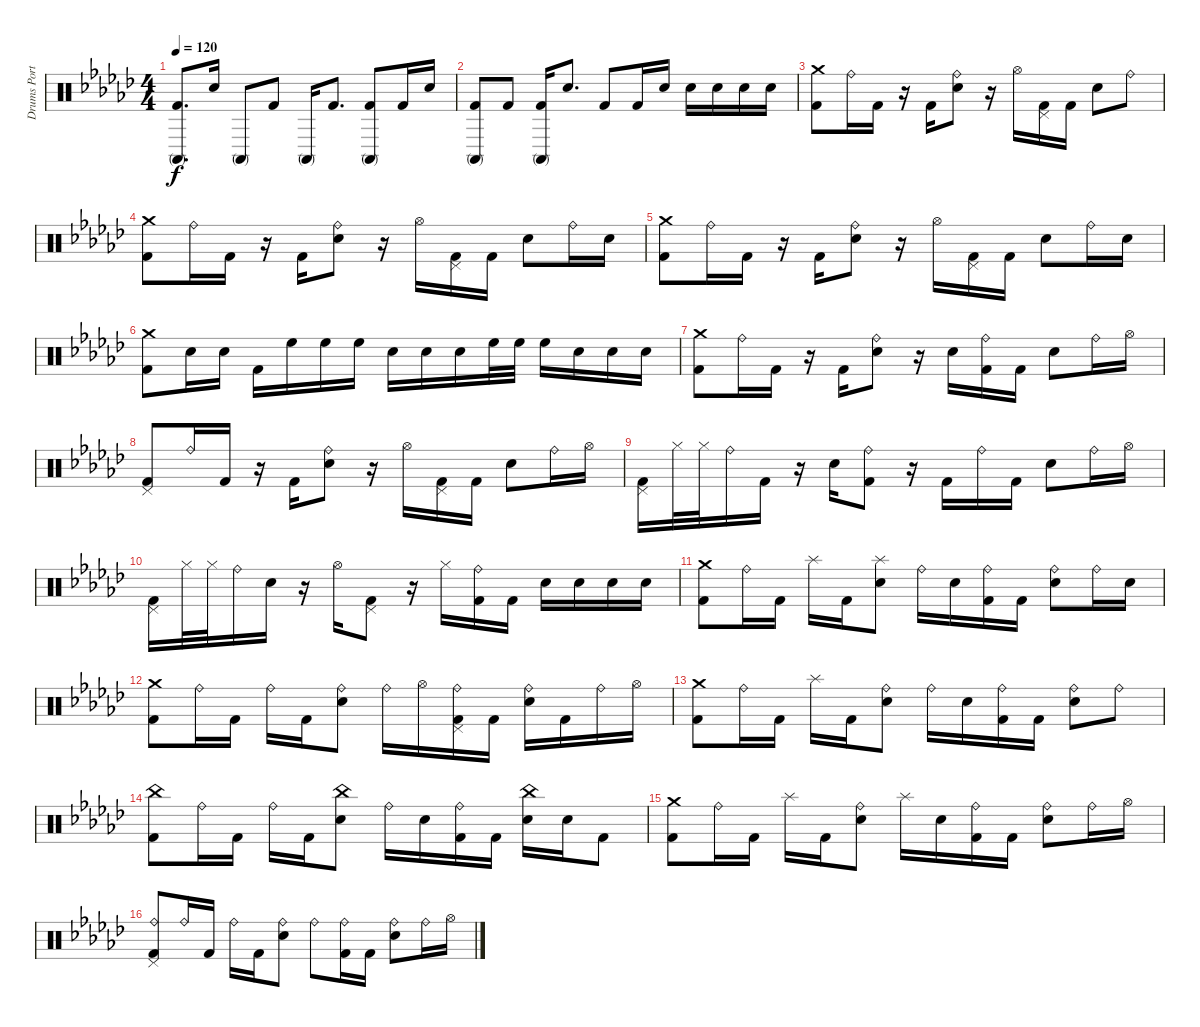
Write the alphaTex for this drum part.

\track ("Drums Portnoy" "Drums Port") {instrument percussion}
\staff {score}
\articulation defaults
\ts (4 4)
\tempo 120
\clef neutral
\ks gb
("Conga high (mute)" "Kick (hit) 2").8{d dy f} "Snare (hit) 2".16 "Conga high (mute)".8 "Kick (hit) 2".8 "Conga high (mute)".16 "Kick (hit) 2".8{d} ("Conga high (mute)" "Kick (hit) 2").8 "Kick (hit) 2".16 "Snare (hit) 2".16 |
("Conga high (mute)" "Kick (hit) 2").8 "Kick (hit) 2".8 ("Conga high (mute)" "Kick (hit) 2").16 "Snare (hit) 2".8{d} "Kick (hit) 2".8 "Kick (hit) 2".16 "Snare (hit) 2".16 "Snare (hit) 2".16 "Snare (hit) 2".16 "Snare (hit) 2".16 "Snare (hit) 2".16 |
("Crash medium (hit)" "Kick (hit) 2").8 "Ride (bell)".16 "Kick (hit) 2".16 r.16 "Kick (hit) 2".16 ("Ride (bell)" "Snare (hit) 2").8 r.16 "Hi-Hat (open)".16 ("Pedal Hi-Hat (hit)" "Kick (hit) 2").16 "Kick (hit) 2".16 "Snare (hit) 2".8 "Ride (bell)".8 |
("Crash medium (hit)" "Kick (hit) 2").8 "Ride (bell)".16 "Kick (hit) 2".16 r.16 "Kick (hit) 2".16 ("Ride (bell)" "Snare (hit) 2").8 r.16 "Hi-Hat (open)".16 ("Pedal Hi-Hat (hit)" "Kick (hit) 2").16 "Kick (hit) 2".16 "Snare (hit) 2".8 "Ride (bell)".16 "Snare (hit) 2".16 |
("Crash medium (hit)" "Kick (hit) 2").8 "Ride (bell)".16 "Kick (hit) 2".16 r.16 "Kick (hit) 2".16 ("Ride (bell)" "Snare (hit) 2").8 r.16 "Hi-Hat (open)".16 ("Pedal Hi-Hat (hit)" "Kick (hit) 2").16 "Kick (hit) 2".16 "Snare (hit) 2".8 "Ride (bell)".16 "Snare (hit) 2".16 |
("Crash medium (hit)" "Kick (hit) 2").8 "Snare (hit) 2".16 "Snare (hit) 2".16 "Kick (hit) 2".16 "High Floor Tom (hit)".16 "High Floor Tom (hit)".16 "High Floor Tom (hit)".16 "Snare (hit) 2".16 "Snare (hit) 2".16 "Snare (hit) 2".16 "High Floor Tom (hit)".32 "High Floor Tom (hit)".32 "High Floor Tom (hit)".16 "Snare (hit) 2".16 "Snare (hit) 2".16 "Snare (hit) 2".16 |
("Crash medium (hit)" "Kick (hit) 2").8 "Ride (bell)".16 "Kick (hit) 2".16 r.16 "Kick (hit) 2".16 ("Ride (bell)" "Snare (hit) 2").8 r.16 "Snare (hit) 2".16 ("Ride (bell)" "Kick (hit) 2").16 "Kick (hit) 2".16 "Snare (hit) 2".8 "Ride (bell)".16 "Hi-Hat (open)".16 |
("Pedal Hi-Hat (hit)" "Kick (hit) 2").8 "Ride (bell)".16 "Kick (hit) 2".16 r.16 "Kick (hit) 2".16 ("Ride (bell)" "Snare (hit) 2").8 r.16 "Hi-Hat (open)".16 ("Pedal Hi-Hat (hit)" "Kick (hit) 2").16 "Kick (hit) 2".16 "Snare (hit) 2".8 "Ride (bell)".16 "Hi-Hat (open)".16 |
("Pedal Hi-Hat (hit)" "Kick (hit) 2").16 "Hi-Hat (closed)".32 "Hi-Hat (closed)".32 "Ride (bell)".16 "Kick (hit) 2".16 r.16 "Snare (hit) 2".16 ("Ride (bell)" "Kick (hit) 2").8 r.16 "Kick (hit) 2".16 "Ride (bell)".16 "Kick (hit) 2".16 "Snare (hit) 2".8 "Ride (bell)".16 "Hi-Hat (open)".16 |
("Pedal Hi-Hat (hit)" "Kick (hit) 2").16 "Hi-Hat (closed)".32 "Hi-Hat (closed)".32 "Ride (bell)".16 "Snare (hit) 2".16 r.16 "Hi-Hat (open)".16 ("Pedal Hi-Hat (hit)" "Kick (hit) 2").8 r.16 "Hi-Hat (closed)".16 ("Ride (bell)" "Kick (hit) 2").16 "Kick (hit) 2".16 "Snare (hit) 2".16 "Snare (hit) 2".16 "Snare (hit) 2".16 "Snare (hit) 2".16 |
("Crash medium (hit)" "Kick (hit) 2").8 "Ride (bell)".16 "Kick (hit) 2".16 "Splash (hit)".16 "Kick (hit) 2".16 ("Splash (hit)" "Snare (hit) 2").8 "Ride (bell)".16 "Snare (hit) 2".16 ("Ride (bell)" "Kick (hit) 2").16 "Kick (hit) 2".16 ("Ride (bell)" "Snare (hit) 2").8 "Ride (bell)".16 "Snare (hit) 2".16 |
("Crash medium (hit)" "Kick (hit) 2").8 "Ride (bell)".16 "Kick (hit) 2".16 "Ride (bell)".16 "Kick (hit) 2".16 ("Ride (bell)" "Snare (hit) 2").8 "Ride (bell)".16 "Hi-Hat (open)".16 ("Ride (bell)" "Pedal Hi-Hat (hit)" "Kick (hit) 2").16 "Kick (hit) 2".16 ("Ride (bell)" "Snare (hit) 2").16 "Kick (hit) 2".16 "Ride (bell)".16 "Hi-Hat (open)".16 |
("Crash medium (hit)" "Kick (hit) 2").8 "Ride (bell)".16 "Kick (hit) 2".16 "Splash (hit)".16 "Kick (hit) 2".16 ("Ride (bell)" "Snare (hit) 2").8 "Ride (bell)".16 "Snare (hit) 2".16 ("Ride (bell)" "Kick (hit) 2").16 "Kick (hit) 2".16 ("Ride (bell)" "Snare (hit) 2").8 "Ride (bell)".8 |
("China (hit)" "Kick (hit) 2").8 "Ride (bell)".16 "Kick (hit) 2".16 "Ride (bell)".16 "Kick (hit) 2".16 ("China (hit)" "Snare (hit) 2").8 "Ride (bell)".16 "Snare (hit) 2".16 ("Ride (bell)" "Kick (hit) 2").16 "Kick (hit) 2".16 ("China (hit)" "Snare (hit) 2").16 "Snare (hit) 2".16 "Kick (hit) 2".8 |
("Crash medium (hit)" "Kick (hit) 2").8 "Ride (bell)".16 "Kick (hit) 2".16 "Splash (hit)".16 "Kick (hit) 2".16 ("Ride (bell)" "Snare (hit) 2").8 "Splash (hit)".16 "Snare (hit) 2".16 ("Ride (bell)" "Kick (hit) 2").16 "Kick (hit) 2".16 ("Ride (bell)" "Snare (hit) 2").8 "Ride (bell)".16 "Hi-Hat (open)".16 |
("Ride (bell)" "Pedal Hi-Hat (hit)" "Kick (hit) 2").8 "Ride (bell)".16 "Kick (hit) 2".16 "Ride (bell)".16 "Kick (hit) 2".16 ("Ride (bell)" "Snare (hit) 2").8 "Ride (bell)".8 ("Ride (bell)" "Kick (hit) 2").16 "Kick (hit) 2".16 ("Ride (bell)" "Snare (hit) 2").8 "Ride (bell)".16 "Hi-Hat (open)".16
